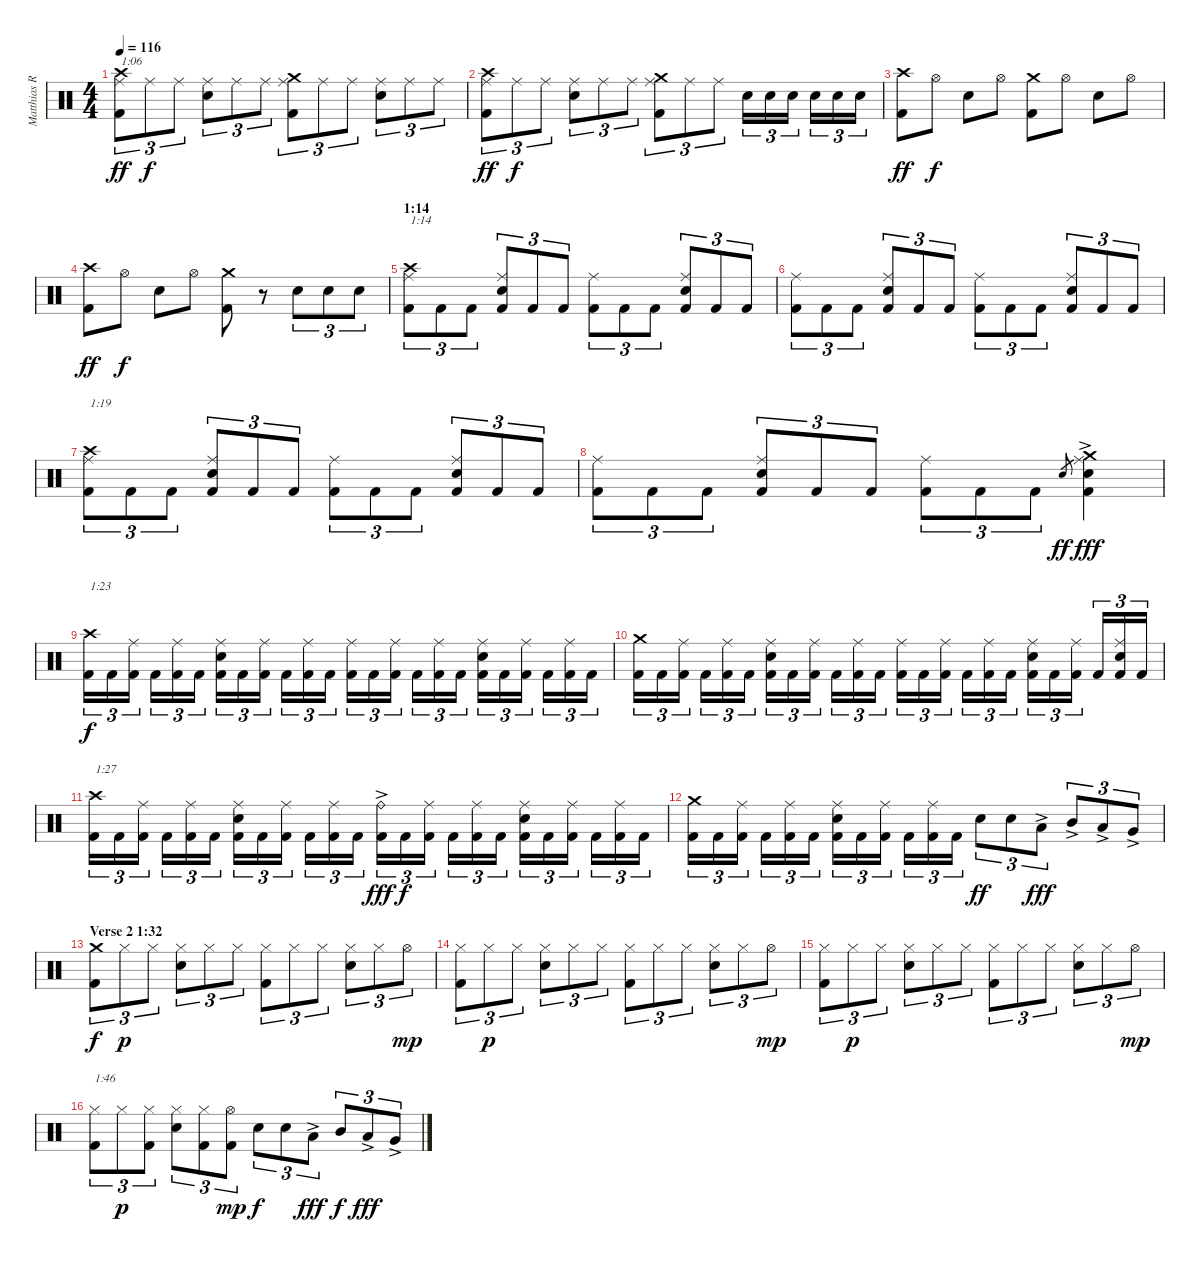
\track ("Matthias R." "Matthias R") {instrument percussion}
\staff {score}
\articulation defaults
\ts (4 4)
\tempo 116
\clef neutral
\ks c
("Kick (hit) 2" "Ride (middle)" "Crash high (hit)").8{tu (3 2) txt "1:06" dy ff} "Ride (middle)".8{tu (3 2) dy f} "Ride (middle)".8{tu (3 2)} ("Electric Snare (hit)" "Ride (middle)").8{tu (3 2)} "Ride (middle)".8{tu (3 2)} "Ride (middle)".8{tu (3 2)} ("Kick (hit) 2" "Ride (middle)" "Crash medium (hit)").8{tu (3 2)} "Ride (middle)".8{tu (3 2)} "Ride (middle)".8{tu (3 2)} ("Electric Snare (hit)" "Ride (middle)").8{tu (3 2)} "Ride (middle)".8{tu (3 2)} "Ride (middle)".8{tu (3 2)} |
("Kick (hit) 2" "Ride (middle)" "Crash high (hit)").8{tu (3 2) dy ff} "Ride (middle)".8{tu (3 2) dy f} "Ride (middle)".8{tu (3 2)} ("Electric Snare (hit)" "Ride (middle)").8{tu (3 2)} "Ride (middle)".8{tu (3 2)} "Ride (middle)".8{tu (3 2)} ("Kick (hit) 2" "Ride (middle)" "Crash medium (hit)").8{tu (3 2)} "Ride (middle)".8{tu (3 2)} "Ride (middle)".8{tu (3 2)} "Electric Snare (hit)".16{tu (3 2)} "Electric Snare (hit)".16{tu (3 2)} "Electric Snare (hit)".16{tu (3 2)} "Electric Snare (hit)".16{tu (3 2)} "Electric Snare (hit)".16{tu (3 2)} "Electric Snare (hit)".16{tu (3 2)} |
("Kick (hit) 2" "Crash high (hit)").8{dy ff} "Hi-Hat (open)".8{dy f} "Electric Snare (hit)".8 "Hi-Hat (open)".8 ("Kick (hit) 2" "Crash medium (hit)").8 "Hi-Hat (open)".8 "Electric Snare (hit)".8 "Hi-Hat (open)".8 |
("Kick (hit) 2" "Crash high (hit)").8{dy ff} "Hi-Hat (open)".8{dy f} "Electric Snare (hit)".8 "Hi-Hat (open)".8 ("Kick (hit) 2" "Crash medium (hit)").8 r.8 "Electric Snare (hit)".8{tu (3 2)} "Electric Snare (hit)".8{tu (3 2)} "Electric Snare (hit)".8{tu (3 2)} |
\section ("" "1:14")
("Kick (hit) 2" "Ride (middle)" "Crash high (hit)").8{tu (3 2) txt "1:14"} "Kick (hit) 2".8{tu (3 2)} "Kick (hit) 2".8{tu (3 2)} ("Kick (hit) 2" "Electric Snare (hit)" "Ride (middle)").8{tu (3 2)} "Kick (hit) 2".8{tu (3 2)} "Kick (hit) 2".8{tu (3 2)} ("Kick (hit) 2" "Ride (middle)").8{tu (3 2)} "Kick (hit) 2".8{tu (3 2)} "Kick (hit) 2".8{tu (3 2)} ("Kick (hit) 2" "Electric Snare (hit)" "Ride (middle)").8{tu (3 2)} "Kick (hit) 2".8{tu (3 2)} "Kick (hit) 2".8{tu (3 2)} |
("Kick (hit) 2" "Ride (middle)").8{tu (3 2)} "Kick (hit) 2".8{tu (3 2)} "Kick (hit) 2".8{tu (3 2)} ("Kick (hit) 2" "Electric Snare (hit)" "Ride (middle)").8{tu (3 2)} "Kick (hit) 2".8{tu (3 2)} "Kick (hit) 2".8{tu (3 2)} ("Kick (hit) 2" "Ride (middle)").8{tu (3 2)} "Kick (hit) 2".8{tu (3 2)} "Kick (hit) 2".8{tu (3 2)} ("Kick (hit) 2" "Electric Snare (hit)" "Ride (middle)").8{tu (3 2)} "Kick (hit) 2".8{tu (3 2)} "Kick (hit) 2".8{tu (3 2)} |
("Kick (hit) 2" "Ride (middle)" "Crash high (hit)").8{tu (3 2) txt "1:19"} "Kick (hit) 2".8{tu (3 2)} "Kick (hit) 2".8{tu (3 2)} ("Kick (hit) 2" "Electric Snare (hit)" "Ride (middle)").8{tu (3 2)} "Kick (hit) 2".8{tu (3 2)} "Kick (hit) 2".8{tu (3 2)} ("Kick (hit) 2" "Ride (middle)").8{tu (3 2)} "Kick (hit) 2".8{tu (3 2)} "Kick (hit) 2".8{tu (3 2)} ("Kick (hit) 2" "Electric Snare (hit)" "Ride (middle)").8{tu (3 2)} "Kick (hit) 2".8{tu (3 2)} "Kick (hit) 2".8{tu (3 2)} |
("Kick (hit) 2" "Ride (middle)").8{tu (3 2)} "Kick (hit) 2".8{tu (3 2)} "Kick (hit) 2".8{tu (3 2)} ("Kick (hit) 2" "Electric Snare (hit)" "Ride (middle)").8{tu (3 2)} "Kick (hit) 2".8{tu (3 2)} "Kick (hit) 2".8{tu (3 2)} ("Kick (hit) 2" "Ride (middle)").8{tu (3 2)} "Kick (hit) 2".8{tu (3 2)} "Kick (hit) 2".8{tu (3 2)} "Electric Snare (hit)".8{gr dy ff} ("Kick (hit) 2" "Electric Snare (hit)" "Ride (middle)" "Crash medium (hit)"{ac}).4{dy fff} |
("Kick (hit) 2" "Crash high (hit)").16{tu (3 2) txt "1:23" dy f} "Kick (hit) 2".16{tu (3 2)} ("Kick (hit) 2" "Ride (middle)").16{tu (3 2)} "Kick (hit) 2".16{tu (3 2)} ("Kick (hit) 2" "Ride (middle)").16{tu (3 2)} "Kick (hit) 2".16{tu (3 2)} ("Kick (hit) 2" "Electric Snare (hit)" "Ride (middle)").16{tu (3 2)} "Kick (hit) 2".16{tu (3 2)} ("Kick (hit) 2" "Ride (middle)").16{tu (3 2)} "Kick (hit) 2".16{tu (3 2)} ("Kick (hit) 2" "Ride (middle)").16{tu (3 2)} "Kick (hit) 2".16{tu (3 2)} ("Kick (hit) 2" "Ride (middle)").16{tu (3 2)} "Kick (hit) 2".16{tu (3 2)} ("Kick (hit) 2" "Ride (middle)").16{tu (3 2)} "Kick (hit) 2".16{tu (3 2)} ("Kick (hit) 2" "Ride (middle)").16{tu (3 2)} "Kick (hit) 2".16{tu (3 2)} ("Kick (hit) 2" "Electric Snare (hit)" "Ride (middle)").16{tu (3 2)} "Kick (hit) 2".16{tu (3 2)} ("Kick (hit) 2" "Ride (middle)").16{tu (3 2)} "Kick (hit) 2".16{tu (3 2)} ("Kick (hit) 2" "Ride (middle)").16{tu (3 2)} "Kick (hit) 2".16{tu (3 2)} |
("Kick (hit) 2" "Crash medium (hit)").16{tu (3 2)} "Kick (hit) 2".16{tu (3 2)} ("Kick (hit) 2" "Ride (middle)").16{tu (3 2)} "Kick (hit) 2".16{tu (3 2)} ("Kick (hit) 2" "Ride (middle)").16{tu (3 2)} "Kick (hit) 2".16{tu (3 2)} ("Kick (hit) 2" "Electric Snare (hit)" "Ride (middle)").16{tu (3 2)} "Kick (hit) 2".16{tu (3 2)} ("Kick (hit) 2" "Ride (middle)").16{tu (3 2)} "Kick (hit) 2".16{tu (3 2)} ("Kick (hit) 2" "Ride (middle)").16{tu (3 2)} "Kick (hit) 2".16{tu (3 2)} ("Kick (hit) 2" "Ride (middle)").16{tu (3 2)} "Kick (hit) 2".16{tu (3 2)} ("Kick (hit) 2" "Ride (middle)").16{tu (3 2)} "Kick (hit) 2".16{tu (3 2)} ("Kick (hit) 2" "Ride (middle)").16{tu (3 2)} "Kick (hit) 2".16{tu (3 2)} ("Kick (hit) 2" "Electric Snare (hit)" "Ride (middle)").16{tu (3 2)} "Kick (hit) 2".16{tu (3 2)} ("Kick (hit) 2" "Ride (middle)").16{tu (3 2)} "Kick (hit) 2".16{tu (3 2)} ("Kick (hit) 2" "Electric Snare (hit)" "Ride (middle)").16{tu (3 2)} "Kick (hit) 2".16{tu (3 2)} |
("Kick (hit) 2" "Crash high (hit)").16{tu (3 2) txt "1:27"} "Kick (hit) 2".16{tu (3 2)} ("Kick (hit) 2" "Ride (middle)").16{tu (3 2)} "Kick (hit) 2".16{tu (3 2)} ("Kick (hit) 2" "Ride (middle)").16{tu (3 2)} "Kick (hit) 2".16{tu (3 2)} ("Kick (hit) 2" "Electric Snare (hit)" "Ride (middle)").16{tu (3 2)} "Kick (hit) 2".16{tu (3 2)} ("Kick (hit) 2" "Ride (middle)").16{tu (3 2)} "Kick (hit) 2".16{tu (3 2)} ("Kick (hit) 2" "Ride (middle)").16{tu (3 2)} "Kick (hit) 2".16{tu (3 2)} ("Kick (hit) 2" "Ride (bell)"{ac}).16{tu (3 2) dy fff} "Kick (hit) 2".16{tu (3 2) dy f} ("Kick (hit) 2" "Ride (middle)").16{tu (3 2)} "Kick (hit) 2".16{tu (3 2)} ("Kick (hit) 2" "Ride (middle)").16{tu (3 2)} "Kick (hit) 2".16{tu (3 2)} ("Kick (hit) 2" "Electric Snare (hit)" "Ride (middle)").16{tu (3 2)} "Kick (hit) 2".16{tu (3 2)} ("Kick (hit) 2" "Ride (middle)").16{tu (3 2)} "Kick (hit) 2".16{tu (3 2)} ("Kick (hit) 2" "Ride (middle)").16{tu (3 2)} "Kick (hit) 2".16{tu (3 2)} |
("Kick (hit) 2" "Crash medium (hit)").16{tu (3 2)} "Kick (hit) 2".16{tu (3 2)} ("Kick (hit) 2" "Ride (middle)").16{tu (3 2)} "Kick (hit) 2".16{tu (3 2)} ("Kick (hit) 2" "Ride (middle)").16{tu (3 2)} "Kick (hit) 2".16{tu (3 2)} ("Kick (hit) 2" "Electric Snare (hit)" "Ride (middle)").16{tu (3 2)} "Kick (hit) 2".16{tu (3 2)} ("Kick (hit) 2" "Ride (middle)").16{tu (3 2)} "Kick (hit) 2".16{tu (3 2)} ("Kick (hit) 2" "Ride (middle)").16{tu (3 2)} "Kick (hit) 2".16{tu (3 2)} "Electric Snare (hit)".8{tu (3 2) dy ff} "Electric Snare (hit)".8{tu (3 2)} "Low Tom (hit)"{ac}.8{tu (3 2) dy fff} "Mid Tom (hit)"{ac}.8{tu (3 2)} "Low Tom (hit)"{ac}.8{tu (3 2)} "Very Low Tom (hit)"{ac}.8{tu (3 2)} |
\section ("" "Verse 2 1:32")
("Kick (hit) 2" "Crash medium (hit)").8{tu (3 2) dy f} "Hi-Hat (closed)".8{tu (3 2) dy p} "Hi-Hat (closed)".8{tu (3 2)} ("Electric Snare (hit)" "Hi-Hat (closed)").8{tu (3 2)} "Hi-Hat (closed)".8{tu (3 2)} "Hi-Hat (closed)".8{tu (3 2)} ("Kick (hit) 2" "Hi-Hat (closed)").8{tu (3 2)} "Hi-Hat (closed)".8{tu (3 2)} "Hi-Hat (closed)".8{tu (3 2)} ("Electric Snare (hit)" "Hi-Hat (closed)").8{tu (3 2)} "Hi-Hat (closed)".8{tu (3 2)} "Hi-Hat (open)".8{tu (3 2) dy mp} |
("Kick (hit) 2" "Hi-Hat (closed)").8{tu (3 2)} "Hi-Hat (closed)".8{tu (3 2) dy p} "Hi-Hat (closed)".8{tu (3 2)} ("Electric Snare (hit)" "Hi-Hat (closed)").8{tu (3 2)} "Hi-Hat (closed)".8{tu (3 2)} "Hi-Hat (closed)".8{tu (3 2)} ("Kick (hit) 2" "Hi-Hat (closed)").8{tu (3 2)} "Hi-Hat (closed)".8{tu (3 2)} "Hi-Hat (closed)".8{tu (3 2)} ("Electric Snare (hit)" "Hi-Hat (closed)").8{tu (3 2)} "Hi-Hat (closed)".8{tu (3 2)} "Hi-Hat (open)".8{tu (3 2) dy mp} |
("Kick (hit) 2" "Hi-Hat (closed)").8{tu (3 2)} "Hi-Hat (closed)".8{tu (3 2) dy p} "Hi-Hat (closed)".8{tu (3 2)} ("Electric Snare (hit)" "Hi-Hat (closed)").8{tu (3 2)} "Hi-Hat (closed)".8{tu (3 2)} "Hi-Hat (closed)".8{tu (3 2)} ("Kick (hit) 2" "Hi-Hat (closed)").8{tu (3 2)} "Hi-Hat (closed)".8{tu (3 2)} "Hi-Hat (closed)".8{tu (3 2)} ("Electric Snare (hit)" "Hi-Hat (closed)").8{tu (3 2)} "Hi-Hat (closed)".8{tu (3 2)} "Hi-Hat (open)".8{tu (3 2) dy mp} |
("Kick (hit) 2" "Hi-Hat (closed)").8{tu (3 2) txt "1:46"} "Hi-Hat (closed)".8{tu (3 2) dy p} ("Kick (hit) 2" "Hi-Hat (closed)").8{tu (3 2)} ("Electric Snare (hit)" "Hi-Hat (closed)").8{tu (3 2)} ("Kick (hit) 2" "Hi-Hat (closed)").8{tu (3 2)} ("Kick (hit) 2" "Hi-Hat (open)").8{tu (3 2) dy mp} "Electric Snare (hit)".8{tu (3 2) dy f} "Electric Snare (hit)".8{tu (3 2)} "Low Tom (hit)"{ac}.8{tu (3 2) dy fff} "Mid Tom (hit)".8{tu (3 2) dy f} "Low Tom (hit)"{ac}.8{tu (3 2) dy fff} "Very Low Tom (hit)"{ac}.8{tu (3 2)}
